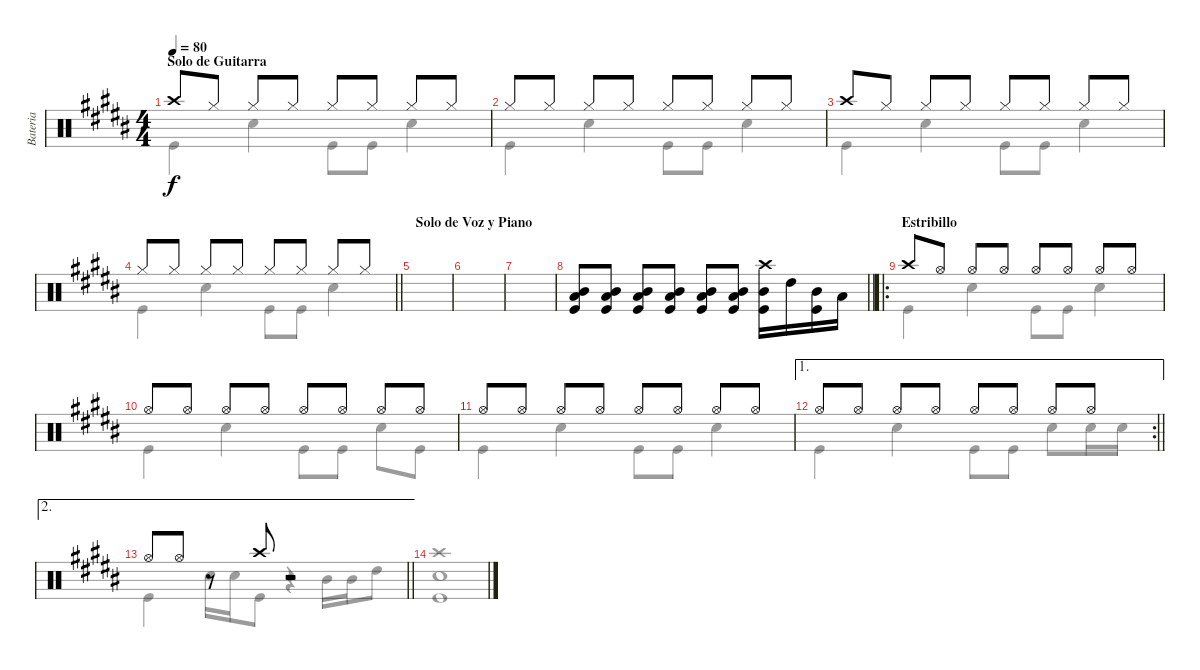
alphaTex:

\track ("Bateria" "Bateria") {instrument percussion}
\staff {score}
\articulation defaults
\voice
\ts (4 4)
\section ("" "Solo de Guitarra")
\tempo 80
\clef neutral
\ks b "Crash high (hit)".8{dy f} "Hi-Hat (closed)".8 "Hi-Hat (closed)".8 "Hi-Hat (closed)".8 "Hi-Hat (closed)".8 "Hi-Hat (closed)".8 "Hi-Hat (closed)".8 "Hi-Hat (closed)".8
|
"Hi-Hat (closed)".8 "Hi-Hat (closed)".8 "Hi-Hat (closed)".8 "Hi-Hat (closed)".8 "Hi-Hat (closed)".8 "Hi-Hat (closed)".8 "Hi-Hat (closed)".8 "Hi-Hat (closed)".8 |
"Crash high (hit)".8 "Hi-Hat (closed)".8 "Hi-Hat (closed)".8 "Hi-Hat (closed)".8 "Hi-Hat (closed)".8 "Hi-Hat (closed)".8 "Hi-Hat (closed)".8 "Hi-Hat (closed)".8 |
\barLineRight lightlight "Hi-Hat (closed)".8 "Hi-Hat (closed)".8 "Hi-Hat (closed)".8 "Hi-Hat (closed)".8 "Hi-Hat (closed)".8 "Hi-Hat (closed)".8 "Hi-Hat (closed)".8 "Hi-Hat (closed)".8
|
\section ("" "Solo de Voz y Piano")
|
|
|
\barLineRight lightlight
("Low Tom (hit)" "Mid Tom (hit)" "Kick (hit)").8 ("Low Tom (hit)" "Mid Tom (hit)" "Kick (hit)").8 ("Low Tom (hit)" "Mid Tom (hit)" "Kick (hit)").8 ("Low Tom (hit)" "Mid Tom (hit)" "Kick (hit)").8 ("Low Tom (hit)" "Mid Tom (hit)" "Kick (hit)").8 ("Low Tom (hit)" "Mid Tom (hit)" "Kick (hit)").8 ("Crash high (hit)" "Mid Tom (hit)" "Kick (hit)").16 "High Tom (hit)".16 ("Mid Tom (hit)" "Kick (hit)").16 "Low Tom (hit)".16 |
\ro
\section ("" "Estribillo")
"Crash high (hit)".8 "Hi-Hat (open)".8 "Hi-Hat (open)".8 "Hi-Hat (open)".8 "Hi-Hat (open)".8 "Hi-Hat (open)".8 "Hi-Hat (open)".8 "Hi-Hat (open)".8 |
"Hi-Hat (open)".8 "Hi-Hat (open)".8 "Hi-Hat (open)".8 "Hi-Hat (open)".8 "Hi-Hat (open)".8 "Hi-Hat (open)".8 "Hi-Hat (open)".8 "Hi-Hat (open)".8 |
"Hi-Hat (open)".8 "Hi-Hat (open)".8 "Hi-Hat (open)".8 "Hi-Hat (open)".8 "Hi-Hat (open)".8 "Hi-Hat (open)".8 "Hi-Hat (open)".8 "Hi-Hat (open)".8 |
\ae 1
\rc 2
\barLineRight lightlight "Hi-Hat (open)".8 "Hi-Hat (open)".8 "Hi-Hat (open)".8 "Hi-Hat (open)".8 "Hi-Hat (open)".8 "Hi-Hat (open)".8 "Hi-Hat (open)".8 "Hi-Hat (open)".8
|
\ae 2
\barLineRight lightlight "Hi-Hat (open)".8 "Hi-Hat (open)".8
r.8 "Crash high (hit)".8 r.2 |
|
|
\voice
\clef neutral
\ottava regular
\simile none
\ks b "Kick (hit)".4{dy f} "Snare (hit) 2".4 "Kick (hit)".8 "Kick (hit)".8 "Snare (hit) 2".4
|
"Kick (hit)".4 "Snare (hit) 2".4 "Kick (hit)".8 "Kick (hit)".8 "Snare (hit) 2".4 |
"Kick (hit)".4 "Snare (hit) 2".4 "Kick (hit)".8 "Kick (hit)".8 "Snare (hit) 2".4 |
\barLineRight lightlight "Kick (hit)".4 "Snare (hit) 2".4 "Kick (hit)".8 "Kick (hit)".8 "Snare (hit) 2".4
|
|
|
|
\barLineRight lightlight
|
"Kick (hit)".4 "Snare (hit) 2".4 "Kick (hit)".8 "Kick (hit)".8 "Snare (hit) 2".4 |
"Kick (hit)".4 "Snare (hit) 2".4 "Kick (hit)".8 "Kick (hit)".8 "Snare (hit) 2".8 "Kick (hit)".8 |
"Kick (hit)".4 "Snare (hit) 2".4 "Kick (hit)".8 "Kick (hit)".8 "Snare (hit) 2".4 |
\barLineRight lightlight "Kick (hit)".4 "Snare (hit) 2".4 "Kick (hit)".8 "Kick (hit)".8 "Snare (hit) 2".8 "Snare (hit) 2".16 "Snare (hit) 2".16
|
\barLineRight lightlight "Kick (hit)".4 "Snare (hit) 2".16 "Snare (hit) 2".16 "Kick (hit)".8
r.4 "Mid Tom (hit)".16 "Mid Tom (hit)".16 "High Tom (hit)".8 |
("Crash high (hit)" "Snare (hit) 2" "Kick (hit)").1 |
|
